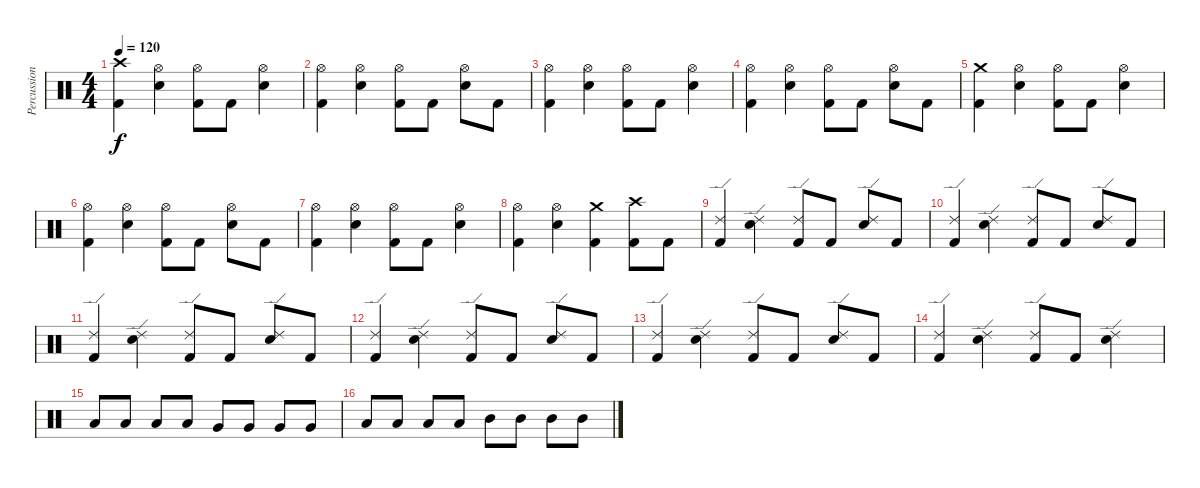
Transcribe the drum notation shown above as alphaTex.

\track ("Percussion" "Percussion") {instrument percussion}
\staff {score}
\articulation defaults
\ts (4 4)
\tempo 120
\clef neutral
\ks c
("Crash high (hit)" "Kick (hit) 2").4{dy f} ("Hi-Hat (open)" "Snare (hit) 2").4 ("Hi-Hat (open)" "Kick (hit) 2").8 "Kick (hit) 2".8 ("Hi-Hat (open)" "Snare (hit) 2").4 |
("Hi-Hat (open)" "Kick (hit) 2").4 ("Hi-Hat (open)" "Snare (hit) 2").4 ("Hi-Hat (open)" "Kick (hit) 2").8 "Kick (hit) 2".8 ("Hi-Hat (open)" "Snare (hit) 2").8 "Kick (hit) 2".8 |
("Hi-Hat (open)" "Kick (hit) 2").4 ("Hi-Hat (open)" "Snare (hit) 2").4 ("Hi-Hat (open)" "Kick (hit) 2").8 "Kick (hit) 2".8 ("Hi-Hat (open)" "Snare (hit) 2").4 |
("Hi-Hat (open)" "Kick (hit) 2").4 ("Hi-Hat (open)" "Snare (hit) 2").4 ("Hi-Hat (open)" "Kick (hit) 2").8 "Kick (hit) 2".8 ("Hi-Hat (open)" "Snare (hit) 2").8 "Kick (hit) 2".8 |
("Crash medium (hit)" "Kick (hit) 2").4 ("Hi-Hat (open)" "Snare (hit) 2").4 ("Hi-Hat (open)" "Kick (hit) 2").8 "Kick (hit) 2".8 ("Hi-Hat (open)" "Snare (hit) 2").4 |
("Hi-Hat (open)" "Kick (hit) 2").4 ("Hi-Hat (open)" "Snare (hit) 2").4 ("Hi-Hat (open)" "Kick (hit) 2").8 "Kick (hit) 2".8 ("Hi-Hat (open)" "Snare (hit) 2").8 "Kick (hit) 2".8 |
("Hi-Hat (open)" "Kick (hit) 2").4 ("Hi-Hat (open)" "Snare (hit) 2").4 ("Hi-Hat (open)" "Kick (hit) 2").8 "Kick (hit) 2".8 ("Hi-Hat (open)" "Snare (hit) 2").4 |
("Hi-Hat (open)" "Kick (hit) 2").4 ("Hi-Hat (open)" "Snare (hit) 2").4 ("Crash medium (hit)" "Kick (hit) 2").4 ("Crash high (hit)" "Kick (hit) 2").8 "Kick (hit) 2".8 |
("Ride (edge) 2" "Kick (hit) 2").4 ("Ride (edge) 2" "Snare (hit) 2").4 ("Ride (edge) 2" "Kick (hit) 2").8 "Kick (hit) 2".8 ("Ride (edge) 2" "Snare (hit) 2").8 "Kick (hit) 2".8 |
("Ride (edge) 2" "Kick (hit) 2").4 ("Ride (edge) 2" "Snare (hit) 2").4 ("Ride (edge) 2" "Kick (hit) 2").8 "Kick (hit) 2".8 ("Ride (edge) 2" "Snare (hit) 2").8 "Kick (hit) 2".8 |
("Ride (edge) 2" "Kick (hit) 2").4 ("Ride (edge) 2" "Snare (hit) 2").4 ("Ride (edge) 2" "Kick (hit) 2").8 "Kick (hit) 2".8 ("Ride (edge) 2" "Snare (hit) 2").8 "Kick (hit) 2".8 |
("Ride (edge) 2" "Kick (hit) 2").4 ("Ride (edge) 2" "Snare (hit) 2").4 ("Ride (edge) 2" "Kick (hit) 2").8 "Kick (hit) 2".8 ("Ride (edge) 2" "Snare (hit) 2").8 "Kick (hit) 2".8 |
("Ride (edge) 2" "Kick (hit) 2").4 ("Ride (edge) 2" "Snare (hit) 2").4 ("Ride (edge) 2" "Kick (hit) 2").8 "Kick (hit) 2".8 ("Ride (edge) 2" "Snare (hit) 2").8 "Kick (hit) 2".8 |
("Ride (edge) 2" "Kick (hit) 2").4 ("Ride (edge) 2" "Snare (hit) 2").4 ("Ride (edge) 2" "Kick (hit) 2").8 "Kick (hit) 2".8 ("Ride (edge) 2" "Snare (hit) 2").4 |
"Low Tom (hit)".8 "Low Tom (hit)".8 "Low Tom (hit)".8 "Low Tom (hit)".8 "Very Low Tom (hit)".8 "Very Low Tom (hit)".8 "Very Low Tom (hit)".8 "Very Low Tom (hit)".8 |
"Low Tom (hit)".8 "Low Tom (hit)".8 "Low Tom (hit)".8 "Low Tom (hit)".8 "Mid Tom (hit)".8 "Mid Tom (hit)".8 "Mid Tom (hit)".8 "Mid Tom (hit)".8
